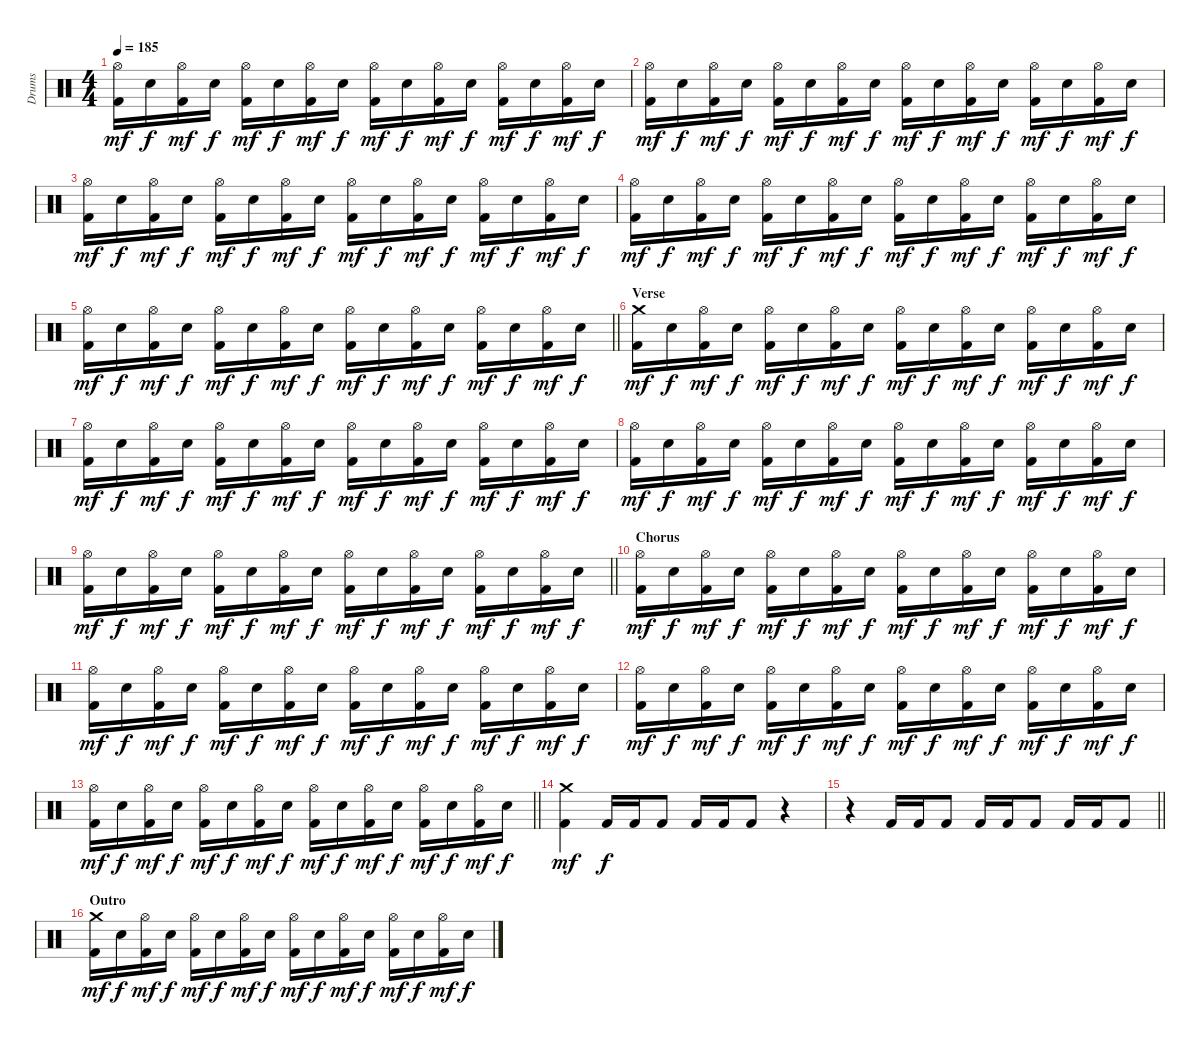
\track ("Drums" "Drums") {instrument percussion}
\staff {score}
\articulation defaults
\ts (4 4)
\tempo 185
\clef neutral
\ks c
("Hi-Hat (open)" "Kick (hit) 2").16{dy mf} "Electric Snare (hit)".16{dy f} ("Hi-Hat (open)" "Kick (hit) 2").16{dy mf} "Electric Snare (hit)".16{dy f} ("Hi-Hat (open)" "Kick (hit) 2").16{dy mf} "Electric Snare (hit)".16{dy f} ("Hi-Hat (open)" "Kick (hit) 2").16{dy mf} "Electric Snare (hit)".16{dy f} ("Hi-Hat (open)" "Kick (hit) 2").16{dy mf} "Electric Snare (hit)".16{dy f} ("Hi-Hat (open)" "Kick (hit) 2").16{dy mf} "Electric Snare (hit)".16{dy f} ("Hi-Hat (open)" "Kick (hit) 2").16{dy mf} "Electric Snare (hit)".16{dy f} ("Hi-Hat (open)" "Kick (hit) 2").16{dy mf} "Electric Snare (hit)".16{dy f} |
("Hi-Hat (open)" "Kick (hit) 2").16{dy mf} "Electric Snare (hit)".16{dy f} ("Hi-Hat (open)" "Kick (hit) 2").16{dy mf} "Electric Snare (hit)".16{dy f} ("Hi-Hat (open)" "Kick (hit) 2").16{dy mf} "Electric Snare (hit)".16{dy f} ("Hi-Hat (open)" "Kick (hit) 2").16{dy mf} "Electric Snare (hit)".16{dy f} ("Hi-Hat (open)" "Kick (hit) 2").16{dy mf} "Electric Snare (hit)".16{dy f} ("Hi-Hat (open)" "Kick (hit) 2").16{dy mf} "Electric Snare (hit)".16{dy f} ("Hi-Hat (open)" "Kick (hit) 2").16{dy mf} "Electric Snare (hit)".16{dy f} ("Hi-Hat (open)" "Kick (hit) 2").16{dy mf} "Electric Snare (hit)".16{dy f} |
("Hi-Hat (open)" "Kick (hit) 2").16{dy mf} "Electric Snare (hit)".16{dy f} ("Hi-Hat (open)" "Kick (hit) 2").16{dy mf} "Electric Snare (hit)".16{dy f} ("Hi-Hat (open)" "Kick (hit) 2").16{dy mf} "Electric Snare (hit)".16{dy f} ("Hi-Hat (open)" "Kick (hit) 2").16{dy mf} "Electric Snare (hit)".16{dy f} ("Hi-Hat (open)" "Kick (hit) 2").16{dy mf} "Electric Snare (hit)".16{dy f} ("Hi-Hat (open)" "Kick (hit) 2").16{dy mf} "Electric Snare (hit)".16{dy f} ("Hi-Hat (open)" "Kick (hit) 2").16{dy mf} "Electric Snare (hit)".16{dy f} ("Hi-Hat (open)" "Kick (hit) 2").16{dy mf} "Electric Snare (hit)".16{dy f} |
("Hi-Hat (open)" "Kick (hit) 2").16{dy mf} "Electric Snare (hit)".16{dy f} ("Hi-Hat (open)" "Kick (hit) 2").16{dy mf} "Electric Snare (hit)".16{dy f} ("Hi-Hat (open)" "Kick (hit) 2").16{dy mf} "Electric Snare (hit)".16{dy f} ("Hi-Hat (open)" "Kick (hit) 2").16{dy mf} "Electric Snare (hit)".16{dy f} ("Hi-Hat (open)" "Kick (hit) 2").16{dy mf} "Electric Snare (hit)".16{dy f} ("Hi-Hat (open)" "Kick (hit) 2").16{dy mf} "Electric Snare (hit)".16{dy f} ("Hi-Hat (open)" "Kick (hit) 2").16{dy mf} "Electric Snare (hit)".16{dy f} ("Hi-Hat (open)" "Kick (hit) 2").16{dy mf} "Electric Snare (hit)".16{dy f} |
\barLineRight lightlight
("Hi-Hat (open)" "Kick (hit) 2").16{dy mf} "Electric Snare (hit)".16{dy f} ("Hi-Hat (open)" "Kick (hit) 2").16{dy mf} "Electric Snare (hit)".16{dy f} ("Hi-Hat (open)" "Kick (hit) 2").16{dy mf} "Electric Snare (hit)".16{dy f} ("Hi-Hat (open)" "Kick (hit) 2").16{dy mf} "Electric Snare (hit)".16{dy f} ("Hi-Hat (open)" "Kick (hit) 2").16{dy mf} "Electric Snare (hit)".16{dy f} ("Hi-Hat (open)" "Kick (hit) 2").16{dy mf} "Electric Snare (hit)".16{dy f} ("Hi-Hat (open)" "Kick (hit) 2").16{dy mf} "Electric Snare (hit)".16{dy f} ("Hi-Hat (open)" "Kick (hit) 2").16{dy mf} "Electric Snare (hit)".16{dy f} |
\section ("" "Verse")
("Crash medium (hit)" "Kick (hit) 2").16{dy mf} "Electric Snare (hit)".16{dy f} ("Hi-Hat (open)" "Kick (hit) 2").16{dy mf} "Electric Snare (hit)".16{dy f} ("Hi-Hat (open)" "Kick (hit) 2").16{dy mf} "Electric Snare (hit)".16{dy f} ("Hi-Hat (open)" "Kick (hit) 2").16{dy mf} "Electric Snare (hit)".16{dy f} ("Hi-Hat (open)" "Kick (hit) 2").16{dy mf} "Electric Snare (hit)".16{dy f} ("Hi-Hat (open)" "Kick (hit) 2").16{dy mf} "Electric Snare (hit)".16{dy f} ("Hi-Hat (open)" "Kick (hit) 2").16{dy mf} "Electric Snare (hit)".16{dy f} ("Hi-Hat (open)" "Kick (hit) 2").16{dy mf} "Electric Snare (hit)".16{dy f} |
("Hi-Hat (open)" "Kick (hit) 2").16{dy mf} "Electric Snare (hit)".16{dy f} ("Hi-Hat (open)" "Kick (hit) 2").16{dy mf} "Electric Snare (hit)".16{dy f} ("Hi-Hat (open)" "Kick (hit) 2").16{dy mf} "Electric Snare (hit)".16{dy f} ("Hi-Hat (open)" "Kick (hit) 2").16{dy mf} "Electric Snare (hit)".16{dy f} ("Hi-Hat (open)" "Kick (hit) 2").16{dy mf} "Electric Snare (hit)".16{dy f} ("Hi-Hat (open)" "Kick (hit) 2").16{dy mf} "Electric Snare (hit)".16{dy f} ("Hi-Hat (open)" "Kick (hit) 2").16{dy mf} "Electric Snare (hit)".16{dy f} ("Hi-Hat (open)" "Kick (hit) 2").16{dy mf} "Electric Snare (hit)".16{dy f} |
("Hi-Hat (open)" "Kick (hit) 2").16{dy mf} "Electric Snare (hit)".16{dy f} ("Hi-Hat (open)" "Kick (hit) 2").16{dy mf} "Electric Snare (hit)".16{dy f} ("Hi-Hat (open)" "Kick (hit) 2").16{dy mf} "Electric Snare (hit)".16{dy f} ("Hi-Hat (open)" "Kick (hit) 2").16{dy mf} "Electric Snare (hit)".16{dy f} ("Hi-Hat (open)" "Kick (hit) 2").16{dy mf} "Electric Snare (hit)".16{dy f} ("Hi-Hat (open)" "Kick (hit) 2").16{dy mf} "Electric Snare (hit)".16{dy f} ("Hi-Hat (open)" "Kick (hit) 2").16{dy mf} "Electric Snare (hit)".16{dy f} ("Hi-Hat (open)" "Kick (hit) 2").16{dy mf} "Electric Snare (hit)".16{dy f} |
\barLineRight lightlight
("Hi-Hat (open)" "Kick (hit) 2").16{dy mf} "Electric Snare (hit)".16{dy f} ("Hi-Hat (open)" "Kick (hit) 2").16{dy mf} "Electric Snare (hit)".16{dy f} ("Hi-Hat (open)" "Kick (hit) 2").16{dy mf} "Electric Snare (hit)".16{dy f} ("Hi-Hat (open)" "Kick (hit) 2").16{dy mf} "Electric Snare (hit)".16{dy f} ("Hi-Hat (open)" "Kick (hit) 2").16{dy mf} "Electric Snare (hit)".16{dy f} ("Hi-Hat (open)" "Kick (hit) 2").16{dy mf} "Electric Snare (hit)".16{dy f} ("Hi-Hat (open)" "Kick (hit) 2").16{dy mf} "Electric Snare (hit)".16{dy f} ("Hi-Hat (open)" "Kick (hit) 2").16{dy mf} "Electric Snare (hit)".16{dy f} |
\section ("" "Chorus")
("Hi-Hat (open)" "Kick (hit) 2").16{dy mf} "Electric Snare (hit)".16{dy f} ("Hi-Hat (open)" "Kick (hit) 2").16{dy mf} "Electric Snare (hit)".16{dy f} ("Hi-Hat (open)" "Kick (hit) 2").16{dy mf} "Electric Snare (hit)".16{dy f} ("Hi-Hat (open)" "Kick (hit) 2").16{dy mf} "Electric Snare (hit)".16{dy f} ("Hi-Hat (open)" "Kick (hit) 2").16{dy mf} "Electric Snare (hit)".16{dy f} ("Hi-Hat (open)" "Kick (hit) 2").16{dy mf} "Electric Snare (hit)".16{dy f} ("Hi-Hat (open)" "Kick (hit) 2").16{dy mf} "Electric Snare (hit)".16{dy f} ("Hi-Hat (open)" "Kick (hit) 2").16{dy mf} "Electric Snare (hit)".16{dy f} |
("Hi-Hat (open)" "Kick (hit) 2").16{dy mf} "Electric Snare (hit)".16{dy f} ("Hi-Hat (open)" "Kick (hit) 2").16{dy mf} "Electric Snare (hit)".16{dy f} ("Hi-Hat (open)" "Kick (hit) 2").16{dy mf} "Electric Snare (hit)".16{dy f} ("Hi-Hat (open)" "Kick (hit) 2").16{dy mf} "Electric Snare (hit)".16{dy f} ("Hi-Hat (open)" "Kick (hit) 2").16{dy mf} "Electric Snare (hit)".16{dy f} ("Hi-Hat (open)" "Kick (hit) 2").16{dy mf} "Electric Snare (hit)".16{dy f} ("Hi-Hat (open)" "Kick (hit) 2").16{dy mf} "Electric Snare (hit)".16{dy f} ("Hi-Hat (open)" "Kick (hit) 2").16{dy mf} "Electric Snare (hit)".16{dy f} |
("Hi-Hat (open)" "Kick (hit) 2").16{dy mf} "Electric Snare (hit)".16{dy f} ("Hi-Hat (open)" "Kick (hit) 2").16{dy mf} "Electric Snare (hit)".16{dy f} ("Hi-Hat (open)" "Kick (hit) 2").16{dy mf} "Electric Snare (hit)".16{dy f} ("Hi-Hat (open)" "Kick (hit) 2").16{dy mf} "Electric Snare (hit)".16{dy f} ("Hi-Hat (open)" "Kick (hit) 2").16{dy mf} "Electric Snare (hit)".16{dy f} ("Hi-Hat (open)" "Kick (hit) 2").16{dy mf} "Electric Snare (hit)".16{dy f} ("Hi-Hat (open)" "Kick (hit) 2").16{dy mf} "Electric Snare (hit)".16{dy f} ("Hi-Hat (open)" "Kick (hit) 2").16{dy mf} "Electric Snare (hit)".16{dy f} |
\barLineRight lightlight
("Hi-Hat (open)" "Kick (hit) 2").16{dy mf} "Electric Snare (hit)".16{dy f} ("Hi-Hat (open)" "Kick (hit) 2").16{dy mf} "Electric Snare (hit)".16{dy f} ("Hi-Hat (open)" "Kick (hit) 2").16{dy mf} "Electric Snare (hit)".16{dy f} ("Hi-Hat (open)" "Kick (hit) 2").16{dy mf} "Electric Snare (hit)".16{dy f} ("Hi-Hat (open)" "Kick (hit) 2").16{dy mf} "Electric Snare (hit)".16{dy f} ("Hi-Hat (open)" "Kick (hit) 2").16{dy mf} "Electric Snare (hit)".16{dy f} ("Hi-Hat (open)" "Kick (hit) 2").16{dy mf} "Electric Snare (hit)".16{dy f} ("Hi-Hat (open)" "Kick (hit) 2").16{dy mf} "Electric Snare (hit)".16{dy f} |
\section ("" "")
("Crash medium (hit)" "Kick (hit) 2").4{dy mf} "Kick (hit) 2".16{dy f} "Kick (hit) 2".16 "Kick (hit) 2".8 "Kick (hit) 2".16 "Kick (hit) 2".16 "Kick (hit) 2".8 r.4 |
\barLineRight lightlight
r.4 "Kick (hit) 2".16 "Kick (hit) 2".16 "Kick (hit) 2".8 "Kick (hit) 2".16 "Kick (hit) 2".16 "Kick (hit) 2".8 "Kick (hit) 2".16 "Kick (hit) 2".16 "Kick (hit) 2".8 |
\section ("" "Outro")
("Crash medium (hit)" "Kick (hit) 2").16{dy mf} "Electric Snare (hit)".16{dy f} ("Hi-Hat (open)" "Kick (hit) 2").16{dy mf} "Electric Snare (hit)".16{dy f} ("Hi-Hat (open)" "Kick (hit) 2").16{dy mf} "Electric Snare (hit)".16{dy f} ("Hi-Hat (open)" "Kick (hit) 2").16{dy mf} "Electric Snare (hit)".16{dy f} ("Hi-Hat (open)" "Kick (hit) 2").16{dy mf} "Electric Snare (hit)".16{dy f} ("Hi-Hat (open)" "Kick (hit) 2").16{dy mf} "Electric Snare (hit)".16{dy f} ("Hi-Hat (open)" "Kick (hit) 2").16{dy mf} "Electric Snare (hit)".16{dy f} ("Hi-Hat (open)" "Kick (hit) 2").16{dy mf} "Electric Snare (hit)".16{dy f}
